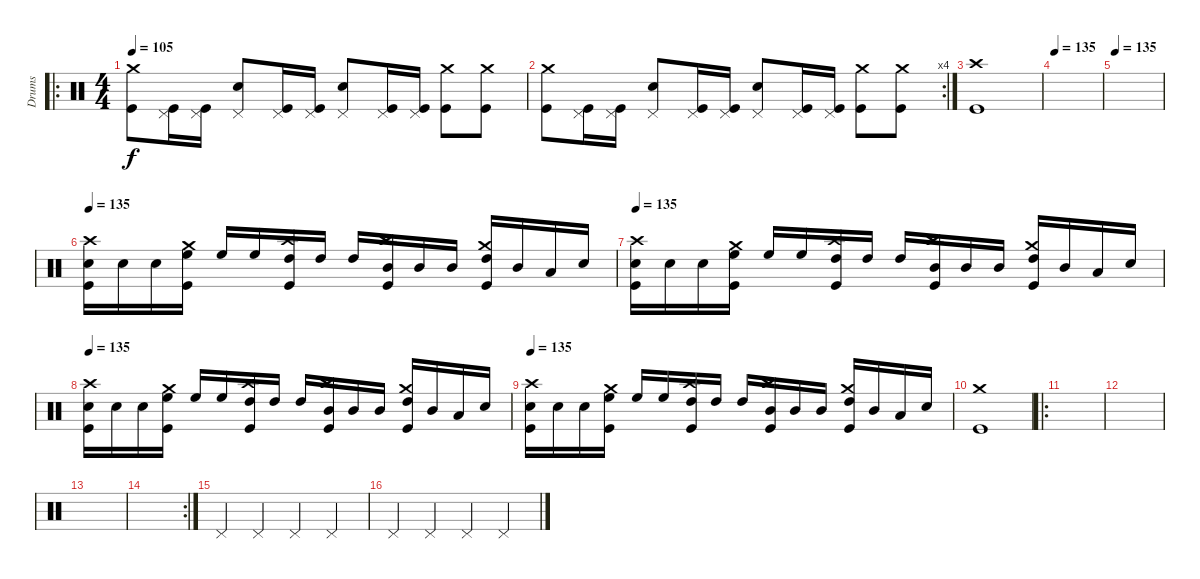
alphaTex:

\track ("Drums" "Drums") {instrument percussion}
\staff {score}
\articulation defaults
\ro
\ts (4 4)
\tempo 105
\clef neutral
\ks c
("Kick (hit)" "Crash medium (hit)").8{dy f} ("Kick (hit)" "Pedal Hi-Hat (hit)").16 ("Kick (hit)" "Pedal Hi-Hat (hit)").16 ("Snare (hit) 2" "Pedal Hi-Hat (hit)").8 ("Kick (hit)" "Pedal Hi-Hat (hit)").16 ("Kick (hit)" "Pedal Hi-Hat (hit)").16 ("Snare (hit) 2" "Pedal Hi-Hat (hit)").8 ("Kick (hit)" "Pedal Hi-Hat (hit)").16 ("Kick (hit)" "Pedal Hi-Hat (hit)").16 ("Kick (hit)" "Crash medium (hit)").8 ("Kick (hit)" "Crash medium (hit)").8 |
\rc 4
("Kick (hit)" "Crash medium (hit)").8 ("Kick (hit)" "Pedal Hi-Hat (hit)").16 ("Kick (hit)" "Pedal Hi-Hat (hit)").16 ("Snare (hit) 2" "Pedal Hi-Hat (hit)").8 ("Kick (hit)" "Pedal Hi-Hat (hit)").16 ("Kick (hit)" "Pedal Hi-Hat (hit)").16 ("Snare (hit) 2" "Pedal Hi-Hat (hit)").8 ("Kick (hit)" "Pedal Hi-Hat (hit)").16 ("Kick (hit)" "Pedal Hi-Hat (hit)").16 ("Kick (hit)" "Crash medium (hit)").8 ("Kick (hit)" "Crash medium (hit)").8 |
("Kick (hit)" "Crash high (hit)").1 |
\tempo 135
|
\tempo 135
|
\tempo 135
("Snare (hit) 2" "Kick (hit)" "Crash high (hit)").16 "Snare (hit) 2".16 "Snare (hit) 2".16 ("High Floor Tom (hit)" "Kick (hit)" "Crash medium (hit)").16 "High Floor Tom (hit)".16 "High Floor Tom (hit)".16 ("High Tom (hit)" "Kick (hit)" "Crash high (hit)").16 "High Tom (hit)".16 "High Tom (hit)".16 ("Mid Tom (hit)" "Kick (hit)" "Crash high (hit)").16 "Mid Tom (hit)".16 "Mid Tom (hit)".16 ("High Tom (hit)" "Crash medium (hit)" "Kick (hit)").16 "Mid Tom (hit)".16 "Low Floor Tom (hit)".16 "Snare (hit) 2".16 |
\tempo 135
("Snare (hit) 2" "Kick (hit)" "Crash high (hit)").16 "Snare (hit) 2".16 "Snare (hit) 2".16 ("High Floor Tom (hit)" "Kick (hit)" "Crash medium (hit)").16 "High Floor Tom (hit)".16 "High Floor Tom (hit)".16 ("High Tom (hit)" "Kick (hit)" "Crash high (hit)").16 "High Tom (hit)".16 "High Tom (hit)".16 ("Mid Tom (hit)" "Kick (hit)" "Crash high (hit)").16 "Mid Tom (hit)".16 "Mid Tom (hit)".16 ("High Tom (hit)" "Crash medium (hit)" "Kick (hit)").16 "Mid Tom (hit)".16 "Low Floor Tom (hit)".16 "Snare (hit) 2".16 |
\tempo 135
("Snare (hit) 2" "Kick (hit)" "Crash high (hit)").16 "Snare (hit) 2".16 "Snare (hit) 2".16 ("High Floor Tom (hit)" "Kick (hit)" "Crash medium (hit)").16 "High Floor Tom (hit)".16 "High Floor Tom (hit)".16 ("High Tom (hit)" "Kick (hit)" "Crash high (hit)").16 "High Tom (hit)".16 "High Tom (hit)".16 ("Mid Tom (hit)" "Kick (hit)" "Crash high (hit)").16 "Mid Tom (hit)".16 "Mid Tom (hit)".16 ("High Tom (hit)" "Crash medium (hit)" "Kick (hit)").16 "Mid Tom (hit)".16 "Low Floor Tom (hit)".16 "Snare (hit) 2".16 |
\tempo 135
("Snare (hit) 2" "Kick (hit)" "Crash high (hit)").16 "Snare (hit) 2".16 "Snare (hit) 2".16 ("High Floor Tom (hit)" "Kick (hit)" "Crash medium (hit)").16 "High Floor Tom (hit)".16 "High Floor Tom (hit)".16 ("High Tom (hit)" "Kick (hit)" "Crash high (hit)").16 "High Tom (hit)".16 "High Tom (hit)".16 ("Mid Tom (hit)" "Kick (hit)" "Crash high (hit)").16 "Mid Tom (hit)".16 "Mid Tom (hit)".16 ("High Tom (hit)" "Crash medium (hit)" "Kick (hit)").16 "Mid Tom (hit)".16 "Low Floor Tom (hit)".16 "Snare (hit) 2".16 |
("Kick (hit)" "Crash medium (hit)").1 |
\ro
|
|
|
\rc 2
|
"Pedal Hi-Hat (hit)".4 "Pedal Hi-Hat (hit)".4 "Pedal Hi-Hat (hit)".4 "Pedal Hi-Hat (hit)".4 |
"Pedal Hi-Hat (hit)".4 "Pedal Hi-Hat (hit)".4 "Pedal Hi-Hat (hit)".4 "Pedal Hi-Hat (hit)".4
